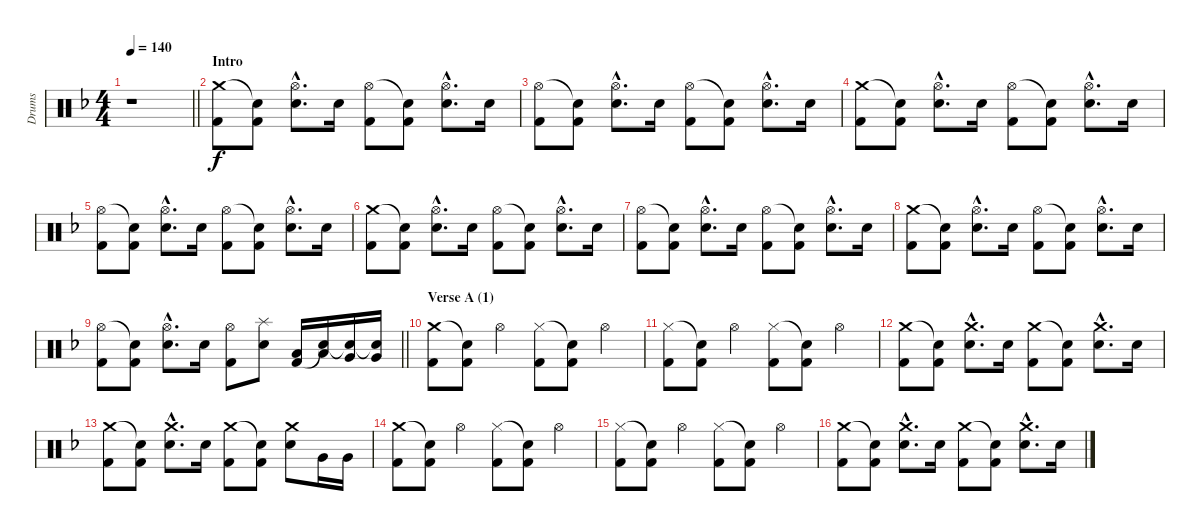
\track ("Drums" "Drums") {instrument percussion}
\staff {score}
\articulation defaults
\ts (4 4)
\tempo 140
\clef neutral
\barLineRight lightlight
\ks f
r.1{dy f} |
\section ("" "Intro")
("Crash medium (hit)" "Kick (hit) 2").8 ("Snare (hit)"{t} "Kick (hit) 2").8 ("Hi-Hat (open)"{hac} "Electric Snare (hit)"{hac}).8{d} "Electric Snare (hit)".16 ("Hi-Hat (open)" "Kick (hit) 2").8 ("Snare (hit)"{t} "Kick (hit) 2").8 ("Hi-Hat (open)"{hac} "Electric Snare (hit)"{hac}).8{d} "Electric Snare (hit)".16 |
("Hi-Hat (open)" "Kick (hit) 2").8 ("Snare (hit)"{t} "Kick (hit) 2").8 ("Hi-Hat (open)"{hac} "Electric Snare (hit)"{hac}).8{d} "Electric Snare (hit)".16 ("Hi-Hat (open)" "Kick (hit) 2").8 ("Snare (hit)"{t} "Kick (hit) 2").8 ("Hi-Hat (open)"{hac} "Electric Snare (hit)"{hac}).8{d} "Electric Snare (hit)".16 |
("Crash medium (hit)" "Kick (hit) 2").8 ("Snare (hit)"{t} "Kick (hit) 2").8 ("Hi-Hat (open)"{hac} "Electric Snare (hit)"{hac}).8{d} "Electric Snare (hit)".16 ("Hi-Hat (open)" "Kick (hit) 2").8 ("Snare (hit)"{t} "Kick (hit) 2").8 ("Hi-Hat (open)"{hac} "Electric Snare (hit)"{hac}).8{d} "Electric Snare (hit)".16 |
("Hi-Hat (open)" "Kick (hit) 2").8 ("Snare (hit)"{t} "Kick (hit) 2").8 ("Hi-Hat (open)"{hac} "Electric Snare (hit)"{hac}).8{d} "Electric Snare (hit)".16 ("Hi-Hat (open)" "Kick (hit) 2").8 ("Snare (hit)"{t} "Kick (hit) 2").8 ("Hi-Hat (open)"{hac} "Electric Snare (hit)"{hac}).8{d} "Electric Snare (hit)".16 |
("Crash medium (hit)" "Kick (hit) 2").8 ("Snare (hit)"{t} "Kick (hit) 2").8 ("Hi-Hat (open)"{hac} "Electric Snare (hit)"{hac}).8{d} "Electric Snare (hit)".16 ("Hi-Hat (open)" "Kick (hit) 2").8 ("Snare (hit)"{t} "Kick (hit) 2").8 ("Hi-Hat (open)"{hac} "Electric Snare (hit)"{hac}).8{d} "Electric Snare (hit)".16 |
("Hi-Hat (open)" "Kick (hit) 2").8 ("Snare (hit)"{t} "Kick (hit) 2").8 ("Hi-Hat (open)"{hac} "Electric Snare (hit)"{hac}).8{d} "Electric Snare (hit)".16 ("Hi-Hat (open)" "Kick (hit) 2").8 ("Snare (hit)"{t} "Kick (hit) 2").8 ("Hi-Hat (open)"{hac} "Electric Snare (hit)"{hac}).8{d} "Electric Snare (hit)".16 |
("Crash medium (hit)" "Kick (hit) 2").8 ("Snare (hit)"{t} "Kick (hit) 2").8 ("Hi-Hat (open)"{hac} "Electric Snare (hit)"{hac}).8{d} "Electric Snare (hit)".16 ("Hi-Hat (open)" "Kick (hit) 2").8 ("Snare (hit)"{t} "Kick (hit) 2").8 ("Hi-Hat (open)"{hac} "Electric Snare (hit)"{hac}).8{d} "Electric Snare (hit)".16 |
\barLineRight lightlight
("Hi-Hat (open)" "Kick (hit) 2").8 ("Snare (hit)"{t} "Kick (hit) 2").8 ("Hi-Hat (open)"{hac} "Electric Snare (hit)"{hac}).8{d} "Electric Snare (hit)".16 ("Hi-Hat (open)" "Kick (hit) 2").8 ("Splash (hit)" "Electric Snare (hit)").8 ("Low Tom (hit)" "Kick (hit) 2").16 ("Low Tom (hit)" "Snare (hit)"{t}).16 ("Very Low Tom (hit)" "Snare (hit)"{t}).16 ("Very Low Tom (hit)" "Snare (hit)"{t}).16 |
\section ("" "Verse A (1)")
("Crash medium (hit)" "Kick (hit) 2").8 ("Snare (hit)"{t} "Kick (hit) 2").8 "Hi-Hat (open)".4 ("Hi-Hat (closed)" "Kick (hit) 2").8 ("Snare (hit)"{t} "Kick (hit) 2").8 "Hi-Hat (open)".4 |
("Hi-Hat (closed)" "Kick (hit) 2").8 ("Snare (hit)"{t} "Kick (hit) 2").8 "Hi-Hat (open)".4 ("Hi-Hat (closed)" "Kick (hit) 2").8 ("Snare (hit)"{t} "Kick (hit) 2").8 "Hi-Hat (open)".4 |
("Crash medium (hit)" "Kick (hit) 2").8 ("Snare (hit)"{t} "Kick (hit) 2").8 ("Crash medium (hit)"{hac} "Electric Snare (hit)"{hac}).8{d} "Electric Snare (hit)".16 ("Crash medium (hit)" "Kick (hit) 2").8 ("Snare (hit)"{t} "Kick (hit) 2").8 ("Crash medium (hit)"{hac} "Electric Snare (hit)"{hac}).8{d} "Electric Snare (hit)".16 |
("Crash medium (hit)" "Kick (hit) 2").8 ("Snare (hit)"{t} "Kick (hit) 2").8 ("Crash medium (hit)"{hac} "Electric Snare (hit)"{hac}).8{d} "Electric Snare (hit)".16 ("Crash medium (hit)" "Kick (hit) 2").8 ("Snare (hit)"{t} "Kick (hit) 2").8 ("Crash medium (hit)" "Electric Snare (hit)").8 "Very Low Tom (hit)".16 "Very Low Tom (hit)".16 |
("Crash medium (hit)" "Kick (hit) 2").8 ("Snare (hit)"{t} "Kick (hit) 2").8 "Hi-Hat (open)".4 ("Hi-Hat (closed)" "Kick (hit) 2").8 ("Snare (hit)"{t} "Kick (hit) 2").8 "Hi-Hat (open)".4 |
("Hi-Hat (closed)" "Kick (hit) 2").8 ("Snare (hit)"{t} "Kick (hit) 2").8 "Hi-Hat (open)".4 ("Hi-Hat (closed)" "Kick (hit) 2").8 ("Snare (hit)"{t} "Kick (hit) 2").8 "Hi-Hat (open)".4 |
("Crash medium (hit)" "Kick (hit) 2").8 ("Snare (hit)"{t} "Kick (hit) 2").8 ("Crash medium (hit)"{hac} "Electric Snare (hit)"{hac}).8{d} "Electric Snare (hit)".16 ("Crash medium (hit)" "Kick (hit) 2").8 ("Snare (hit)"{t} "Kick (hit) 2").8 ("Crash medium (hit)"{hac} "Electric Snare (hit)"{hac}).8{d} "Electric Snare (hit)".16
